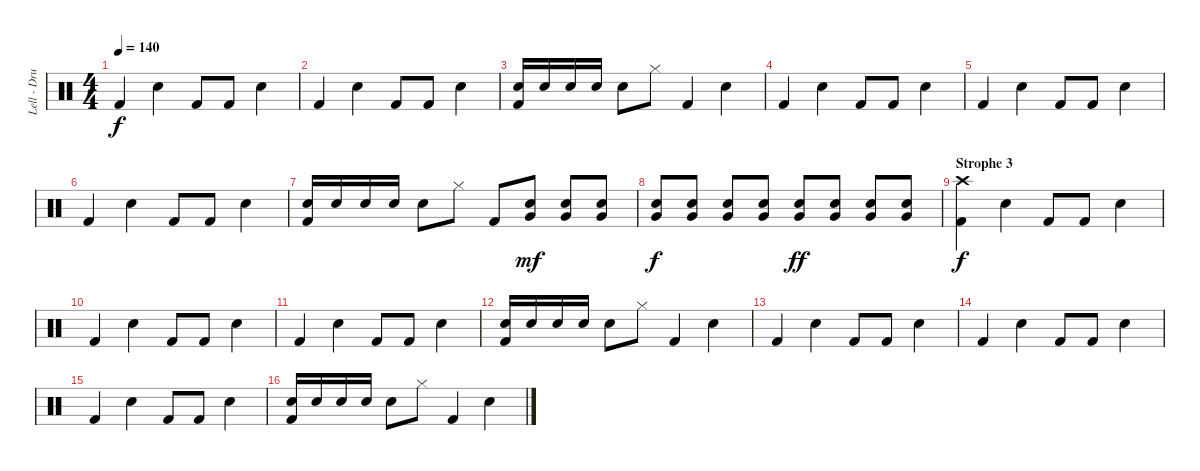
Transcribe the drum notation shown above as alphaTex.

\track ("Lell - Drums" "Lell - Dru") {instrument percussion}
\staff {score}
\articulation defaults
\ts (4 4)
\tempo 140
\clef neutral
\ks c "Kick (hit) 2".4{dy f} "Snare (hit) 2".4 "Kick (hit) 2".8 "Kick (hit) 2".8 "Snare (hit) 2".4
|
"Kick (hit) 2".4 "Snare (hit) 2".4 "Kick (hit) 2".8 "Kick (hit) 2".8 "Snare (hit) 2".4 |
("Snare (hit) 2" "Kick (hit) 2").16 "Snare (hit) 2".16 "Snare (hit) 2".16 "Snare (hit) 2".16 "Snare (hit) 2".8 "Hi-Hat (closed)".8 "Kick (hit) 2".4 "Snare (hit) 2".4 |
"Kick (hit) 2".4 "Snare (hit) 2".4 "Kick (hit) 2".8 "Kick (hit) 2".8 "Snare (hit) 2".4 |
"Kick (hit) 2".4 "Snare (hit) 2".4 "Kick (hit) 2".8 "Kick (hit) 2".8 "Snare (hit) 2".4 |
"Kick (hit) 2".4 "Snare (hit) 2".4 "Kick (hit) 2".8 "Kick (hit) 2".8 "Snare (hit) 2".4 |
("Snare (hit) 2" "Kick (hit) 2").16 "Snare (hit) 2".16 "Snare (hit) 2".16 "Snare (hit) 2".16 "Snare (hit) 2".8 "Hi-Hat (closed)".8 "Kick (hit) 2".8 ("Very Low Tom (hit)" "Snare (hit) 2").8{dy mf} ("Very Low Tom (hit)" "Snare (hit) 2").8 ("Very Low Tom (hit)" "Snare (hit) 2").8 |
("Very Low Tom (hit)" "Snare (hit) 2").8{dy f} ("Very Low Tom (hit)" "Snare (hit) 2").8 ("Very Low Tom (hit)" "Snare (hit) 2").8 ("Very Low Tom (hit)" "Snare (hit) 2").8 ("Very Low Tom (hit)" "Snare (hit) 2").8{dy ff} ("Very Low Tom (hit)" "Snare (hit) 2").8 ("Very Low Tom (hit)" "Snare (hit) 2").8 ("Very Low Tom (hit)" "Snare (hit) 2").8 |
\section ("" "Strophe 3")
("Crash high (hit)" "Kick (hit) 2").4{dy f} "Snare (hit) 2".4 "Kick (hit) 2".8 "Kick (hit) 2".8 "Snare (hit) 2".4 |
"Kick (hit) 2".4 "Snare (hit) 2".4 "Kick (hit) 2".8 "Kick (hit) 2".8 "Snare (hit) 2".4 |
"Kick (hit) 2".4 "Snare (hit) 2".4 "Kick (hit) 2".8 "Kick (hit) 2".8 "Snare (hit) 2".4 |
("Snare (hit) 2" "Kick (hit) 2").16 "Snare (hit) 2".16 "Snare (hit) 2".16 "Snare (hit) 2".16 "Snare (hit) 2".8 "Hi-Hat (closed)".8 "Kick (hit) 2".4 "Snare (hit) 2".4 |
"Kick (hit) 2".4 "Snare (hit) 2".4 "Kick (hit) 2".8 "Kick (hit) 2".8 "Snare (hit) 2".4 |
"Kick (hit) 2".4 "Snare (hit) 2".4 "Kick (hit) 2".8 "Kick (hit) 2".8 "Snare (hit) 2".4 |
"Kick (hit) 2".4 "Snare (hit) 2".4 "Kick (hit) 2".8 "Kick (hit) 2".8 "Snare (hit) 2".4 |
("Snare (hit) 2" "Kick (hit) 2").16 "Snare (hit) 2".16 "Snare (hit) 2".16 "Snare (hit) 2".16 "Snare (hit) 2".8 "Hi-Hat (closed)".8 "Kick (hit) 2".4 "Snare (hit) 2".4
